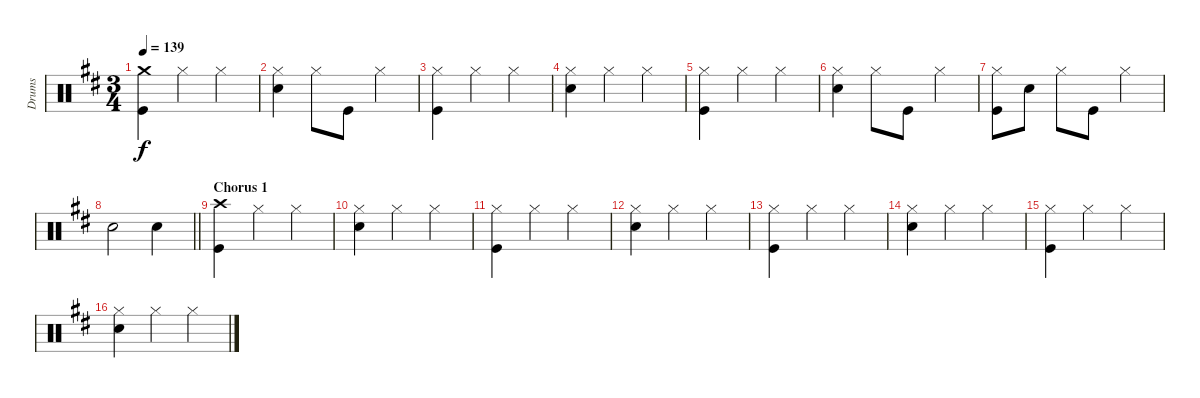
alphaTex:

\track ("Drums" "Drums") {instrument percussion}
\staff {score}
\articulation defaults
\ts (3 4)
\tempo 139
\clef neutral
\ks d
("Crash medium (hit)" "Kick (hit)").4{dy f} "Hi-Hat (closed)".4 "Hi-Hat (closed)".4 |
("Hi-Hat (closed)" "Snare (hit) 2").4 "Hi-Hat (closed)".8 "Kick (hit)".8 "Hi-Hat (closed)".4 |
("Hi-Hat (closed)" "Kick (hit)").4 "Hi-Hat (closed)".4 "Hi-Hat (closed)".4 |
("Hi-Hat (closed)" "Snare (hit) 2").4 "Hi-Hat (closed)".4 "Hi-Hat (closed)".4 |
("Hi-Hat (closed)" "Kick (hit)").4 "Hi-Hat (closed)".4 "Hi-Hat (closed)".4 |
("Hi-Hat (closed)" "Snare (hit) 2").4 "Hi-Hat (closed)".8 "Kick (hit)".8 "Hi-Hat (closed)".4 |
("Hi-Hat (closed)" "Kick (hit)").8 "Snare (hit) 2".8 "Hi-Hat (closed)".8 "Kick (hit)".8 "Hi-Hat (closed)".4 |
\barLineRight lightlight "Snare (hit) 2".2 "Snare (hit) 2".4
|
\section ("" "Chorus 1")
("Crash high (hit)" "Kick (hit)").4 "Hi-Hat (closed)".4 "Hi-Hat (closed)".4 |
("Hi-Hat (closed)" "Snare (hit) 2").4 "Hi-Hat (closed)".4 "Hi-Hat (closed)".4 |
("Hi-Hat (closed)" "Kick (hit)").4 "Hi-Hat (closed)".4 "Hi-Hat (closed)".4 |
("Hi-Hat (closed)" "Snare (hit) 2").4 "Hi-Hat (closed)".4 "Hi-Hat (closed)".4 |
("Hi-Hat (closed)" "Kick (hit)").4 "Hi-Hat (closed)".4 "Hi-Hat (closed)".4 |
("Hi-Hat (closed)" "Snare (hit) 2").4 "Hi-Hat (closed)".4 "Hi-Hat (closed)".4 |
("Hi-Hat (closed)" "Kick (hit)").4 "Hi-Hat (closed)".4 "Hi-Hat (closed)".4 |
("Hi-Hat (closed)" "Snare (hit) 2").4 "Hi-Hat (closed)".4 "Hi-Hat (closed)".4
